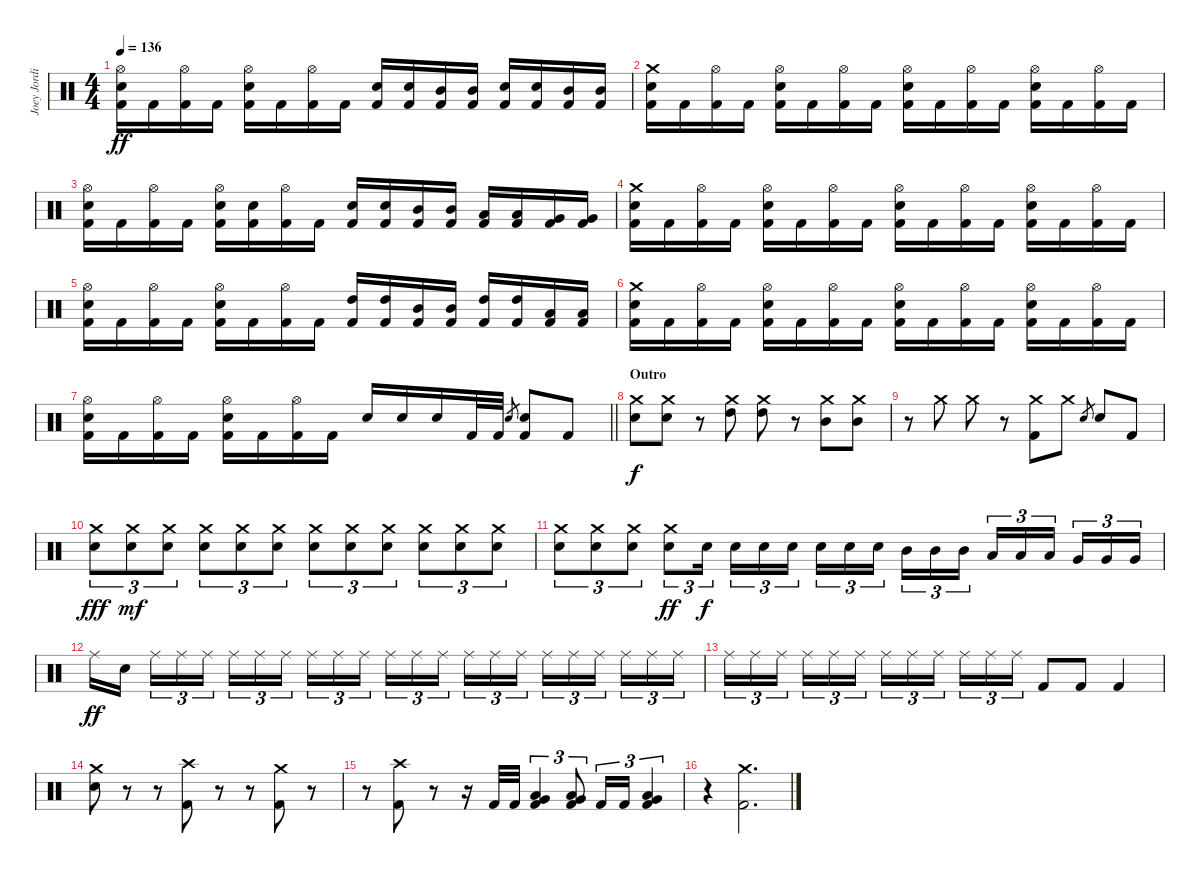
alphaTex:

\track ("Joey Jordison" "Joey Jordi") {instrument percussion}
\staff {score}
\articulation defaults
\ts (4 4)
\tempo 136
\clef neutral
\ks c
("Hi-Hat (open)" "Electric Snare (hit)" "Kick (hit) 2").16{dy ff} "Kick (hit) 2".16 ("Hi-Hat (open)" "Kick (hit) 2").16 "Kick (hit) 2".16 ("Hi-Hat (open)" "Electric Snare (hit)" "Kick (hit) 2").16 "Kick (hit) 2".16 ("Hi-Hat (open)" "Kick (hit) 2").16 "Kick (hit) 2".16 ("Electric Snare (hit)" "Kick (hit) 2").16 ("Electric Snare (hit)" "Kick (hit) 2").16 ("Mid Tom (hit)" "Kick (hit) 2").16 ("Mid Tom (hit)" "Kick (hit) 2").16 ("Electric Snare (hit)" "Kick (hit) 2").16 ("Electric Snare (hit)" "Kick (hit) 2").16 ("Mid Tom (hit)" "Kick (hit) 2").16 ("Mid Tom (hit)" "Kick (hit) 2").16 |
("Crash medium (hit)" "Electric Snare (hit)" "Kick (hit) 2").16 "Kick (hit) 2".16 ("Hi-Hat (open)" "Kick (hit) 2").16 "Kick (hit) 2".16 ("Hi-Hat (open)" "Electric Snare (hit)" "Kick (hit) 2").16 "Kick (hit) 2".16 ("Hi-Hat (open)" "Kick (hit) 2").16 "Kick (hit) 2".16 ("Hi-Hat (open)" "Electric Snare (hit)" "Kick (hit) 2").16 "Kick (hit) 2".16 ("Hi-Hat (open)" "Kick (hit) 2").16 "Kick (hit) 2".16 ("Hi-Hat (open)" "Electric Snare (hit)" "Kick (hit) 2").16 "Kick (hit) 2".16 ("Hi-Hat (open)" "Kick (hit) 2").16 "Kick (hit) 2".16 |
("Hi-Hat (open)" "Electric Snare (hit)" "Kick (hit) 2").16 "Kick (hit) 2".16 ("Hi-Hat (open)" "Kick (hit) 2").16 "Kick (hit) 2".16 ("Hi-Hat (open)" "Electric Snare (hit)" "Kick (hit) 2").16 ("Electric Snare (hit)" "Kick (hit) 2").16 ("Hi-Hat (open)" "Kick (hit) 2").16 "Kick (hit) 2".16 ("Electric Snare (hit)" "Kick (hit) 2").16 ("Electric Snare (hit)" "Kick (hit) 2").16 ("Mid Tom (hit)" "Kick (hit) 2").16 ("Mid Tom (hit)" "Kick (hit) 2").16 ("Low Tom (hit)" "Kick (hit) 2").16 ("Low Tom (hit)" "Kick (hit) 2").16 ("Very Low Tom (hit)" "Kick (hit) 2").16 ("Very Low Tom (hit)" "Kick (hit) 2").16 |
("Crash medium (hit)" "Electric Snare (hit)" "Kick (hit) 2").16 "Kick (hit) 2".16 ("Hi-Hat (open)" "Kick (hit) 2").16 "Kick (hit) 2".16 ("Hi-Hat (open)" "Electric Snare (hit)" "Kick (hit) 2").16 "Kick (hit) 2".16 ("Hi-Hat (open)" "Kick (hit) 2").16 "Kick (hit) 2".16 ("Hi-Hat (open)" "Electric Snare (hit)" "Kick (hit) 2").16 "Kick (hit) 2".16 ("Hi-Hat (open)" "Kick (hit) 2").16 "Kick (hit) 2".16 ("Hi-Hat (open)" "Electric Snare (hit)" "Kick (hit) 2").16 "Kick (hit) 2".16 ("Hi-Hat (open)" "Kick (hit) 2").16 "Kick (hit) 2".16 |
("Hi-Hat (open)" "Electric Snare (hit)" "Kick (hit) 2").16 "Kick (hit) 2".16 ("Hi-Hat (open)" "Kick (hit) 2").16 "Kick (hit) 2".16 ("Hi-Hat (open)" "Electric Snare (hit)" "Kick (hit) 2").16 "Kick (hit) 2".16 ("Hi-Hat (open)" "Kick (hit) 2").16 "Kick (hit) 2".16 ("High Tom (hit)" "Kick (hit) 2").16 ("High Tom (hit)" "Kick (hit) 2").16 ("Mid Tom (hit)" "Kick (hit) 2").16 ("Mid Tom (hit)" "Kick (hit) 2").16 ("High Tom (hit)" "Kick (hit) 2").16 ("High Tom (hit)" "Kick (hit) 2").16 ("Low Tom (hit)" "Kick (hit) 2").16 ("Low Tom (hit)" "Kick (hit) 2").16 |
("Crash medium (hit)" "Electric Snare (hit)" "Kick (hit) 2").16 "Kick (hit) 2".16 ("Hi-Hat (open)" "Kick (hit) 2").16 "Kick (hit) 2".16 ("Hi-Hat (open)" "Electric Snare (hit)" "Kick (hit) 2").16 "Kick (hit) 2".16 ("Hi-Hat (open)" "Kick (hit) 2").16 "Kick (hit) 2".16 ("Hi-Hat (open)" "Electric Snare (hit)" "Kick (hit) 2").16 "Kick (hit) 2".16 ("Hi-Hat (open)" "Kick (hit) 2").16 "Kick (hit) 2".16 ("Hi-Hat (open)" "Electric Snare (hit)" "Kick (hit) 2").16 "Kick (hit) 2".16 ("Hi-Hat (open)" "Kick (hit) 2").16 "Kick (hit) 2".16 |
\barLineRight lightlight
("Hi-Hat (open)" "Electric Snare (hit)" "Kick (hit) 2").16 "Kick (hit) 2".16 ("Hi-Hat (open)" "Kick (hit) 2").16 "Kick (hit) 2".16 ("Hi-Hat (open)" "Electric Snare (hit)" "Kick (hit) 2").16 "Kick (hit) 2".16 ("Hi-Hat (open)" "Kick (hit) 2").16 "Kick (hit) 2".16 "Electric Snare (hit)".16 "Electric Snare (hit)".16 "Electric Snare (hit)".16 "Kick (hit) 2".32 "Kick (hit) 2".32 "Electric Snare (hit)".8{gr} ("Electric Snare (hit)" "Kick (hit) 2").8 "Kick (hit) 2".8 |
\section ("" "Outro")
("Crash medium (hit)" "Electric Snare (hit)").8{dy f} ("Crash medium (hit)" "Electric Snare (hit)").8 r.8 ("Crash medium (hit)" "High Tom (hit)").8 ("Crash medium (hit)" "High Tom (hit)").8 r.8 ("Crash medium (hit)" "Mid Tom (hit)").8 ("Crash medium (hit)" "Mid Tom (hit)").8 |
r.8 "Crash medium (hit)".8 "Crash medium (hit)".8 r.8 ("Crash medium (hit)" "Kick (hit) 2").8 "Crash medium (hit)".8 "Electric Snare (hit)".8{gr} "Electric Snare (hit)".8 "Kick (hit) 2".8 |
("Crash medium (hit)" "Electric Snare (hit)").8{tu (3 2) dy fff} ("Crash medium (hit)" "Electric Snare (hit)").8{tu (3 2) dy mf} ("Crash medium (hit)" "Electric Snare (hit)").8{tu (3 2)} ("Crash medium (hit)" "Electric Snare (hit)").8{tu (3 2)} ("Crash medium (hit)" "Electric Snare (hit)").8{tu (3 2)} ("Crash medium (hit)" "Electric Snare (hit)").8{tu (3 2)} ("Crash medium (hit)" "Electric Snare (hit)").8{tu (3 2)} ("Crash medium (hit)" "Electric Snare (hit)").8{tu (3 2)} ("Crash medium (hit)" "Electric Snare (hit)").8{tu (3 2)} ("Crash medium (hit)" "Electric Snare (hit)").8{tu (3 2)} ("Crash medium (hit)" "Electric Snare (hit)").8{tu (3 2)} ("Crash medium (hit)" "Electric Snare (hit)").8{tu (3 2)} |
("Crash medium (hit)" "Electric Snare (hit)").8{tu (3 2)} ("Crash medium (hit)" "Electric Snare (hit)").8{tu (3 2)} ("Crash medium (hit)" "Electric Snare (hit)").8{tu (3 2)} ("Crash medium (hit)" "Electric Snare (hit)").8{tu (3 2) dy ff} "Electric Snare (hit)".16{tu (3 2) dy f beam splitsecondary} "Electric Snare (hit)".16{tu (3 2)} "Electric Snare (hit)".16{tu (3 2)} "Electric Snare (hit)".16{tu (3 2)} "Electric Snare (hit)".16{tu (3 2)} "Electric Snare (hit)".16{tu (3 2)} "Electric Snare (hit)".16{tu (3 2) beam splitsecondary} "Mid Tom (hit)".16{tu (3 2)} "Mid Tom (hit)".16{tu (3 2)} "Mid Tom (hit)".16{tu (3 2)} "Low Tom (hit)".16{tu (3 2)} "Low Tom (hit)".16{tu (3 2)} "Low Tom (hit)".16{tu (3 2) beam splitsecondary} "Very Low Tom (hit)".16{tu (3 2)} "Very Low Tom (hit)".16{tu (3 2)} "Very Low Tom (hit)".16{tu (3 2)} |
"Ride (middle)".16{dy ff} "Electric Snare (hit)".16{beam splitsecondary} "Ride (middle)".16{tu (3 2)} "Ride (middle)".16{tu (3 2)} "Ride (middle)".16{tu (3 2)} "Ride (middle)".16{tu (3 2)} "Ride (middle)".16{tu (3 2)} "Ride (middle)".16{tu (3 2) beam splitsecondary} "Ride (middle)".16{tu (3 2)} "Ride (middle)".16{tu (3 2)} "Ride (middle)".16{tu (3 2)} "Ride (middle)".16{tu (3 2)} "Ride (middle)".16{tu (3 2)} "Ride (middle)".16{tu (3 2) beam splitsecondary} "Ride (middle)".16{tu (3 2)} "Ride (middle)".16{tu (3 2)} "Ride (middle)".16{tu (3 2)} "Ride (middle)".16{tu (3 2)} "Ride (middle)".16{tu (3 2)} "Ride (middle)".16{tu (3 2) beam splitsecondary} "Ride (middle)".16{tu (3 2)} "Ride (middle)".16{tu (3 2)} "Ride (middle)".16{tu (3 2)} |
"Ride (middle)".16{tu (3 2)} "Ride (middle)".16{tu (3 2)} "Ride (middle)".16{tu (3 2) beam splitsecondary} "Ride (middle)".16{tu (3 2)} "Ride (middle)".16{tu (3 2)} "Ride (middle)".16{tu (3 2)} "Ride (middle)".16{tu (3 2)} "Ride (middle)".16{tu (3 2)} "Ride (middle)".16{tu (3 2) beam splitsecondary} "Ride (middle)".16{tu (3 2)} "Ride (middle)".16{tu (3 2)} "Ride (middle)".16{tu (3 2)} "Kick (hit) 2".8 "Kick (hit) 2".8 "Kick (hit) 2".4 |
("Crash medium (hit)" "Electric Snare (hit)").8 r.8 r.8 ("Crash high (hit)" "Kick (hit) 2").8 r.8 r.8 ("Crash medium (hit)" "Kick (hit) 2").8 r.8 |
r.8 ("Crash high (hit)" "Kick (hit) 2").8 r.8 r.16 "Kick (hit) 2".32 "Kick (hit) 2".32 ("Very Low Tom (hit)" "Low Floor Tom (hit)" "Kick (hit) 2").4{tu (3 2)} ("Very Low Tom (hit)" "Low Floor Tom (hit)" "Kick (hit) 2").8{tu (3 2)} "Kick (hit) 2".16{tu (3 2)} "Kick (hit) 2".16{tu (3 2)} ("Very Low Tom (hit)" "Low Floor Tom (hit)" "Kick (hit) 2").4{tu (3 2)} |
r.4 ("Crash medium (hit)" "Kick (hit) 2").2{d}
